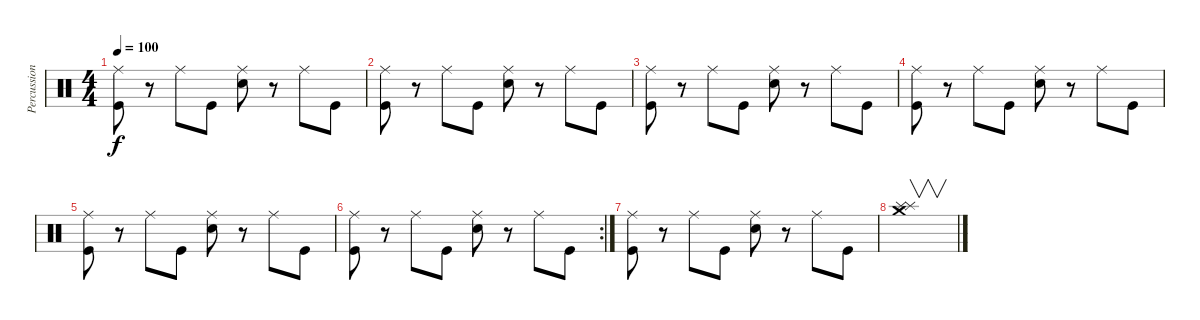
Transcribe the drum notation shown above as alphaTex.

\track ("Percussioni" "Percussion") {instrument percussion}
\staff {score}
\articulation defaults
\ts (4 4)
\tempo 100
\clef neutral
\ks c
("Ride (middle)" "Kick (hit)").8{dy f} r.8 "Ride (middle)".8 "Kick (hit)".8 ("Ride (middle)" "Snare (hit) 2").8 r.8 "Ride (middle)".8 "Kick (hit)".8 |
("Ride (middle)" "Kick (hit)").8 r.8 "Ride (middle)".8 "Kick (hit)".8 ("Ride (middle)" "Snare (hit) 2").8 r.8 "Ride (middle)".8 "Kick (hit)".8 |
("Ride (middle)" "Kick (hit)").8 r.8 "Ride (middle)".8 "Kick (hit)".8 ("Ride (middle)" "Snare (hit) 2").8 r.8 "Ride (middle)".8 "Kick (hit)".8 |
("Ride (middle)" "Kick (hit)").8 r.8 "Ride (middle)".8 "Kick (hit)".8 ("Ride (middle)" "Snare (hit) 2").8 r.8 "Ride (middle)".8 "Kick (hit)".8 |
("Ride (middle)" "Kick (hit)").8 r.8 "Ride (middle)".8 "Kick (hit)".8 ("Ride (middle)" "Snare (hit) 2").8 r.8 "Ride (middle)".8 "Kick (hit)".8 |
\rc 2
("Ride (middle)" "Kick (hit)").8 r.8 "Ride (middle)".8 "Kick (hit)".8 ("Ride (middle)" "Snare (hit) 2").8 r.8 "Ride (middle)".8 "Kick (hit)".8 |
("Ride (middle)" "Kick (hit)").8 r.8 "Ride (middle)".8 "Kick (hit)".8 ("Ride (middle)" "Snare (hit) 2").8 r.8 "Ride (middle)".8 "Kick (hit)".8 |
("Crash medium (hit)" "Splash (hit)" "Splash (hit)").1{v}
